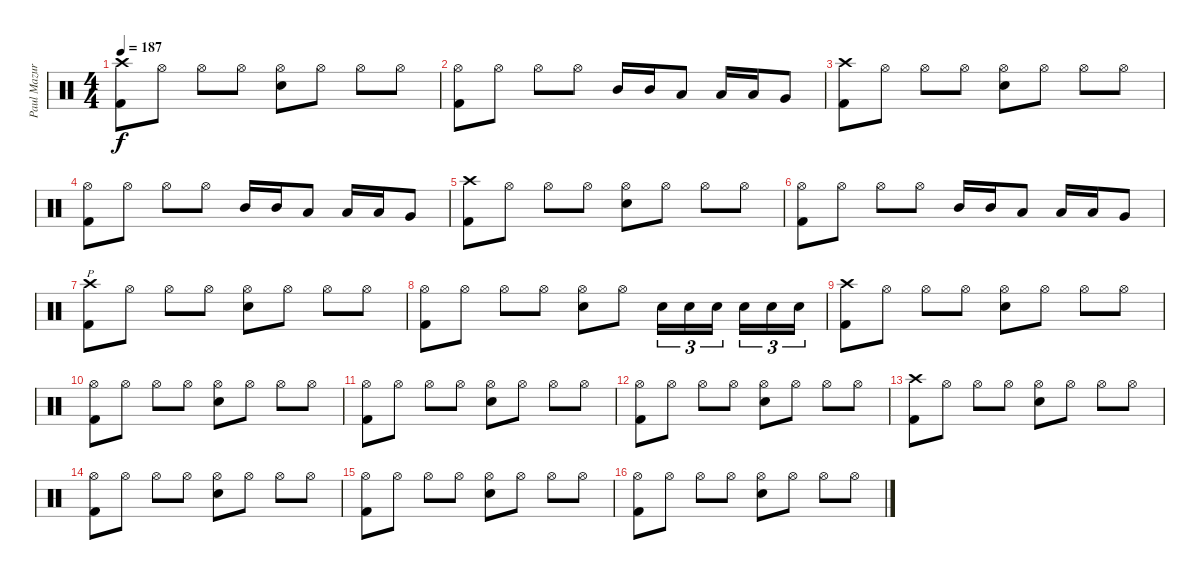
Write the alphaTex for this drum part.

\track ("Paul Mazurkiewicz - Drums" "Paul Mazur") {instrument percussion}
\staff {score}
\articulation defaults
\ts (4 4)
\tempo 187
\clef neutral
\ks c
("Crash high (hit)" "Kick (hit) 2").8{dy f} "Hi-Hat (open)".8 "Hi-Hat (open)".8 "Hi-Hat (open)".8 ("Hi-Hat (open)" "Snare (hit) 2").8 "Hi-Hat (open)".8 "Hi-Hat (open)".8 "Hi-Hat (open)".8 |
("Hi-Hat (open)" "Kick (hit) 2").8 "Hi-Hat (open)".8 "Hi-Hat (open)".8 "Hi-Hat (open)".8 "Mid Tom (hit)".16 "Mid Tom (hit)".16 "Low Tom (hit)".8 "Low Tom (hit)".16 "Low Tom (hit)".16 "Very Low Tom (hit)".8 |
("Crash high (hit)" "Kick (hit) 2").8 "Hi-Hat (open)".8 "Hi-Hat (open)".8 "Hi-Hat (open)".8 ("Hi-Hat (open)" "Snare (hit) 2").8 "Hi-Hat (open)".8 "Hi-Hat (open)".8 "Hi-Hat (open)".8 |
("Hi-Hat (open)" "Kick (hit) 2").8 "Hi-Hat (open)".8 "Hi-Hat (open)".8 "Hi-Hat (open)".8 "Mid Tom (hit)".16 "Mid Tom (hit)".16 "Low Tom (hit)".8 "Low Tom (hit)".16 "Low Tom (hit)".16 "Very Low Tom (hit)".8 |
("Crash high (hit)" "Kick (hit) 2").8 "Hi-Hat (open)".8 "Hi-Hat (open)".8 "Hi-Hat (open)".8 ("Hi-Hat (open)" "Snare (hit) 2").8 "Hi-Hat (open)".8 "Hi-Hat (open)".8 "Hi-Hat (open)".8 |
("Hi-Hat (open)" "Kick (hit) 2").8 "Hi-Hat (open)".8 "Hi-Hat (open)".8 "Hi-Hat (open)".8 "Mid Tom (hit)".16 "Mid Tom (hit)".16 "Low Tom (hit)".8 "Low Tom (hit)".16 "Low Tom (hit)".16 "Very Low Tom (hit)".8 |
("Crash high (hit)" "Kick (hit) 2").8{p} "Hi-Hat (open)".8 "Hi-Hat (open)".8 "Hi-Hat (open)".8 ("Hi-Hat (open)" "Snare (hit) 2").8 "Hi-Hat (open)".8 "Hi-Hat (open)".8 "Hi-Hat (open)".8 |
("Hi-Hat (open)" "Kick (hit) 2").8 "Hi-Hat (open)".8 "Hi-Hat (open)".8 "Hi-Hat (open)".8 ("Hi-Hat (open)" "Snare (hit) 2").8 "Hi-Hat (open)".8 "Snare (hit) 2".16{tu (3 2)} "Snare (hit) 2".16{tu (3 2)} "Snare (hit) 2".16{tu (3 2)} "Snare (hit) 2".16{tu (3 2)} "Snare (hit) 2".16{tu (3 2)} "Snare (hit) 2".16{tu (3 2)} |
("Crash high (hit)" "Kick (hit) 2").8 "Hi-Hat (open)".8 "Hi-Hat (open)".8 "Hi-Hat (open)".8 ("Hi-Hat (open)" "Snare (hit) 2").8 "Hi-Hat (open)".8 "Hi-Hat (open)".8 "Hi-Hat (open)".8 |
("Hi-Hat (open)" "Kick (hit) 2").8 "Hi-Hat (open)".8 "Hi-Hat (open)".8 "Hi-Hat (open)".8 ("Hi-Hat (open)" "Snare (hit) 2").8 "Hi-Hat (open)".8 "Hi-Hat (open)".8 "Hi-Hat (open)".8 |
("Hi-Hat (open)" "Kick (hit) 2").8 "Hi-Hat (open)".8 "Hi-Hat (open)".8 "Hi-Hat (open)".8 ("Hi-Hat (open)" "Snare (hit) 2").8 "Hi-Hat (open)".8 "Hi-Hat (open)".8 "Hi-Hat (open)".8 |
("Hi-Hat (open)" "Kick (hit) 2").8 "Hi-Hat (open)".8 "Hi-Hat (open)".8 "Hi-Hat (open)".8 ("Hi-Hat (open)" "Snare (hit) 2").8 "Hi-Hat (open)".8 "Hi-Hat (open)".8 "Hi-Hat (open)".8 |
("Crash high (hit)" "Kick (hit) 2").8 "Hi-Hat (open)".8 "Hi-Hat (open)".8 "Hi-Hat (open)".8 ("Hi-Hat (open)" "Snare (hit) 2").8 "Hi-Hat (open)".8 "Hi-Hat (open)".8 "Hi-Hat (open)".8 |
("Hi-Hat (open)" "Kick (hit) 2").8 "Hi-Hat (open)".8 "Hi-Hat (open)".8 "Hi-Hat (open)".8 ("Hi-Hat (open)" "Snare (hit) 2").8 "Hi-Hat (open)".8 "Hi-Hat (open)".8 "Hi-Hat (open)".8 |
("Hi-Hat (open)" "Kick (hit) 2").8 "Hi-Hat (open)".8 "Hi-Hat (open)".8 "Hi-Hat (open)".8 ("Hi-Hat (open)" "Snare (hit) 2").8 "Hi-Hat (open)".8 "Hi-Hat (open)".8 "Hi-Hat (open)".8 |
("Hi-Hat (open)" "Kick (hit) 2").8 "Hi-Hat (open)".8 "Hi-Hat (open)".8 "Hi-Hat (open)".8 ("Hi-Hat (open)" "Snare (hit) 2").8 "Hi-Hat (open)".8 "Hi-Hat (open)".8 "Hi-Hat (open)".8
